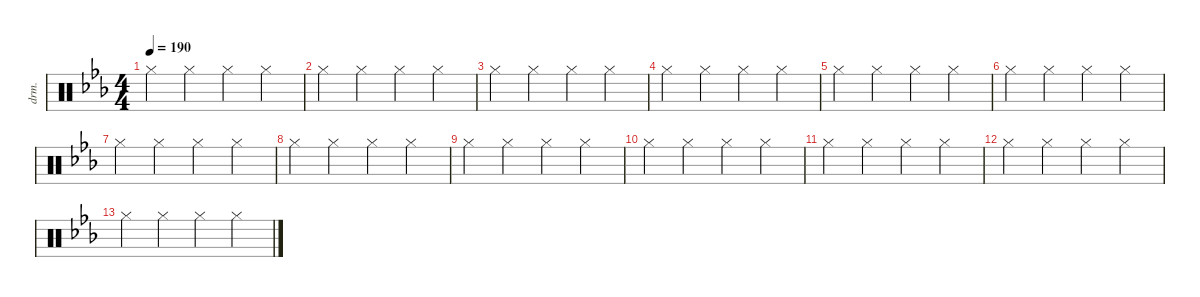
\defaultSystemsLayout 4
\hideDynamics
\bracketExtendMode nobrackets
\track ("节拍器" "drm.") {instrument percussion}
\staff {score}
\articulation defaults
\ts (4 4)
\tempo 190
\clef neutral
\ks cminor "Hi-Hat (closed)"{acc forcenatural}.4{dy mf beam Down} "Hi-Hat (closed)"{acc forcenatural}.4{beam Down} "Hi-Hat (closed)"{acc forcenatural}.4{beam Down} "Hi-Hat (closed)"{acc forcenatural}.4{beam Down}
|
"Hi-Hat (closed)"{acc forcenatural}.4{beam Down} "Hi-Hat (closed)"{acc forcenatural}.4{beam Down} "Hi-Hat (closed)"{acc forcenatural}.4{beam Down} "Hi-Hat (closed)"{acc forcenatural}.4{beam Down} |
"Hi-Hat (closed)"{acc forcenatural}.4{beam Down} "Hi-Hat (closed)"{acc forcenatural}.4{beam Down} "Hi-Hat (closed)"{acc forcenatural}.4{beam Down} "Hi-Hat (closed)"{acc forcenatural}.4{beam Down} |
"Hi-Hat (closed)"{acc forcenatural}.4{beam Down} "Hi-Hat (closed)"{acc forcenatural}.4{beam Down} "Hi-Hat (closed)"{acc forcenatural}.4{beam Down} "Hi-Hat (closed)"{acc forcenatural}.4{beam Down} |
"Hi-Hat (closed)"{acc forcenatural}.4{beam Down} "Hi-Hat (closed)"{acc forcenatural}.4{beam Down} "Hi-Hat (closed)"{acc forcenatural}.4{beam Down} "Hi-Hat (closed)"{acc forcenatural}.4{beam Down} |
"Hi-Hat (closed)"{acc forcenatural}.4{beam Down} "Hi-Hat (closed)"{acc forcenatural}.4{beam Down} "Hi-Hat (closed)"{acc forcenatural}.4{beam Down} "Hi-Hat (closed)"{acc forcenatural}.4{beam Down} |
"Hi-Hat (closed)"{acc forcenatural}.4{beam Down} "Hi-Hat (closed)"{acc forcenatural}.4{beam Down} "Hi-Hat (closed)"{acc forcenatural}.4{beam Down} "Hi-Hat (closed)"{acc forcenatural}.4{beam Down} |
"Hi-Hat (closed)"{acc forcenatural}.4{beam Down} "Hi-Hat (closed)"{acc forcenatural}.4{beam Down} "Hi-Hat (closed)"{acc forcenatural}.4{beam Down} "Hi-Hat (closed)"{acc forcenatural}.4{beam Down} |
"Hi-Hat (closed)"{acc forcenatural}.4{beam Down} "Hi-Hat (closed)"{acc forcenatural}.4{beam Down} "Hi-Hat (closed)"{acc forcenatural}.4{beam Down} "Hi-Hat (closed)"{acc forcenatural}.4{beam Down} |
"Hi-Hat (closed)"{acc forcenatural}.4{beam Down} "Hi-Hat (closed)"{acc forcenatural}.4{beam Down} "Hi-Hat (closed)"{acc forcenatural}.4{beam Down} "Hi-Hat (closed)"{acc forcenatural}.4{beam Down} |
"Hi-Hat (closed)"{acc forcenatural}.4{beam Down} "Hi-Hat (closed)"{acc forcenatural}.4{beam Down} "Hi-Hat (closed)"{acc forcenatural}.4{beam Down} "Hi-Hat (closed)"{acc forcenatural}.4{beam Down} |
"Hi-Hat (closed)"{acc forcenatural}.4{beam Down} "Hi-Hat (closed)"{acc forcenatural}.4{beam Down} "Hi-Hat (closed)"{acc forcenatural}.4{beam Down} "Hi-Hat (closed)"{acc forcenatural}.4{beam Down} |
"Hi-Hat (closed)"{acc forcenatural}.4{beam Down} "Hi-Hat (closed)"{acc forcenatural}.4{beam Down} "Hi-Hat (closed)"{acc forcenatural}.4{beam Down} "Hi-Hat (closed)"{acc forcenatural}.4{beam Down}
